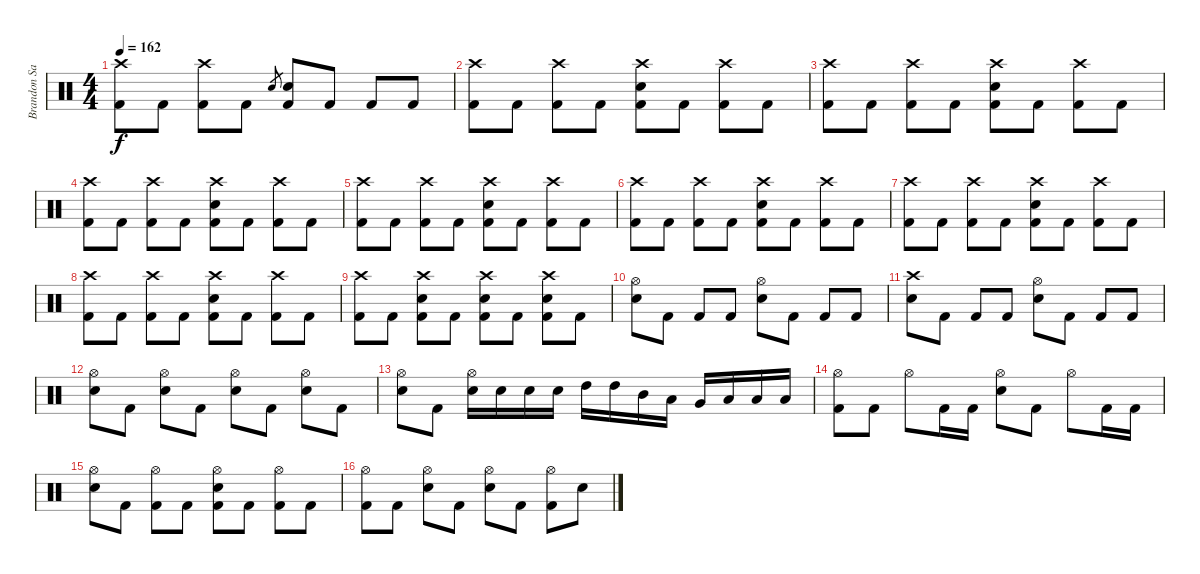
\track ("Brandon Saller" "Brandon Sa") {instrument percussion}
\staff {score}
\articulation defaults
\ts (4 4)
\tempo 162
\clef neutral
\ks c
("Crash high (hit)" "Kick (hit) 2").8{dy f} "Kick (hit) 2".8 ("Crash high (hit)" "Kick (hit) 2").8 "Kick (hit) 2".8 "Electric Snare (hit)".8{gr} ("Electric Snare (hit)" "Kick (hit) 2").8 "Kick (hit) 2".8 "Kick (hit) 2".8 "Kick (hit) 2".8 |
("Crash high (hit)" "Kick (hit) 2").8 "Kick (hit) 2".8 ("Crash high (hit)" "Kick (hit) 2").8 "Kick (hit) 2".8 ("Crash high (hit)" "Electric Snare (hit)" "Kick (hit) 2").8 "Kick (hit) 2".8 ("Crash high (hit)" "Kick (hit) 2").8 "Kick (hit) 2".8 |
("Crash high (hit)" "Kick (hit) 2").8 "Kick (hit) 2".8 ("Crash high (hit)" "Kick (hit) 2").8 "Kick (hit) 2".8 ("Crash high (hit)" "Electric Snare (hit)" "Kick (hit) 2").8 "Kick (hit) 2".8 ("Crash high (hit)" "Kick (hit) 2").8 "Kick (hit) 2".8 |
("Crash high (hit)" "Kick (hit) 2").8 "Kick (hit) 2".8 ("Crash high (hit)" "Kick (hit) 2").8 "Kick (hit) 2".8 ("Crash high (hit)" "Electric Snare (hit)" "Kick (hit) 2").8 "Kick (hit) 2".8 ("Crash high (hit)" "Kick (hit) 2").8 "Kick (hit) 2".8 |
("Crash high (hit)" "Kick (hit) 2").8 "Kick (hit) 2".8 ("Crash high (hit)" "Kick (hit) 2").8 "Kick (hit) 2".8 ("Crash high (hit)" "Electric Snare (hit)" "Kick (hit) 2").8 "Kick (hit) 2".8 ("Crash high (hit)" "Kick (hit) 2").8 "Kick (hit) 2".8 |
("Crash high (hit)" "Kick (hit) 2").8 "Kick (hit) 2".8 ("Crash high (hit)" "Kick (hit) 2").8 "Kick (hit) 2".8 ("Crash high (hit)" "Electric Snare (hit)" "Kick (hit) 2").8 "Kick (hit) 2".8 ("Crash high (hit)" "Kick (hit) 2").8 "Kick (hit) 2".8 |
("Crash high (hit)" "Kick (hit) 2").8 "Kick (hit) 2".8 ("Crash high (hit)" "Kick (hit) 2").8 "Kick (hit) 2".8 ("Crash high (hit)" "Electric Snare (hit)" "Kick (hit) 2").8 "Kick (hit) 2".8 ("Crash high (hit)" "Kick (hit) 2").8 "Kick (hit) 2".8 |
("Crash high (hit)" "Kick (hit) 2").8 "Kick (hit) 2".8 ("Crash high (hit)" "Kick (hit) 2").8 "Kick (hit) 2".8 ("Crash high (hit)" "Electric Snare (hit)" "Kick (hit) 2").8 "Kick (hit) 2".8 ("Crash high (hit)" "Kick (hit) 2").8 "Kick (hit) 2".8 |
("Crash high (hit)" "Kick (hit) 2").8 "Kick (hit) 2".8 ("Crash high (hit)" "Electric Snare (hit)" "Kick (hit) 2").8 "Kick (hit) 2".8 ("Crash high (hit)" "Electric Snare (hit)" "Kick (hit) 2").8 "Kick (hit) 2".8 ("Crash high (hit)" "Electric Snare (hit)" "Kick (hit) 2").8 "Kick (hit) 2".8 |
("Hi-Hat (open)" "Electric Snare (hit)").8 "Kick (hit) 2".8 "Kick (hit) 2".8 "Kick (hit) 2".8 ("Hi-Hat (open)" "Electric Snare (hit)").8 "Kick (hit) 2".8 "Kick (hit) 2".8 "Kick (hit) 2".8 |
("Crash high (hit)" "Electric Snare (hit)").8 "Kick (hit) 2".8 "Kick (hit) 2".8 "Kick (hit) 2".8 ("Hi-Hat (open)" "Electric Snare (hit)").8 "Kick (hit) 2".8 "Kick (hit) 2".8 "Kick (hit) 2".8 |
("Hi-Hat (open)" "Electric Snare (hit)").8 "Kick (hit) 2".8 ("Hi-Hat (open)" "Electric Snare (hit)").8 "Kick (hit) 2".8 ("Hi-Hat (open)" "Electric Snare (hit)").8 "Kick (hit) 2".8 ("Hi-Hat (open)" "Electric Snare (hit)").8 "Kick (hit) 2".8 |
("Hi-Hat (open)" "Electric Snare (hit)").8 "Kick (hit) 2".8 ("Hi-Hat (open)" "Electric Snare (hit)").16 "Electric Snare (hit)".16 "Electric Snare (hit)".16 "Electric Snare (hit)".16 "High Tom (hit)".16 "High Tom (hit)".16 "Mid Tom (hit)".16 "Low Tom (hit)".16 "Very Low Tom (hit)".16 "Low Floor Tom (hit)".16 "Low Floor Tom (hit)".16 "Low Floor Tom (hit)".16 |
("Hi-Hat (open)" "Kick (hit) 2").8 "Kick (hit) 2".8 "Hi-Hat (open)".8 "Kick (hit) 2".16 "Kick (hit) 2".16 ("Hi-Hat (open)" "Electric Snare (hit)").8 "Kick (hit) 2".8 "Hi-Hat (open)".8 "Kick (hit) 2".16 "Kick (hit) 2".16 |
("Hi-Hat (open)" "Electric Snare (hit)").8 "Kick (hit) 2".8 ("Hi-Hat (open)" "Kick (hit) 2").8 "Kick (hit) 2".8 ("Hi-Hat (open)" "Electric Snare (hit)" "Kick (hit) 2").8 "Kick (hit) 2".8 ("Hi-Hat (open)" "Kick (hit) 2").8 "Kick (hit) 2".8 |
("Hi-Hat (open)" "Kick (hit) 2").8 "Kick (hit) 2".8 ("Hi-Hat (open)" "Electric Snare (hit)").8 "Kick (hit) 2".8 ("Hi-Hat (open)" "Electric Snare (hit)").8 "Kick (hit) 2".8 ("Hi-Hat (open)" "Kick (hit) 2").8 "Electric Snare (hit)".8
